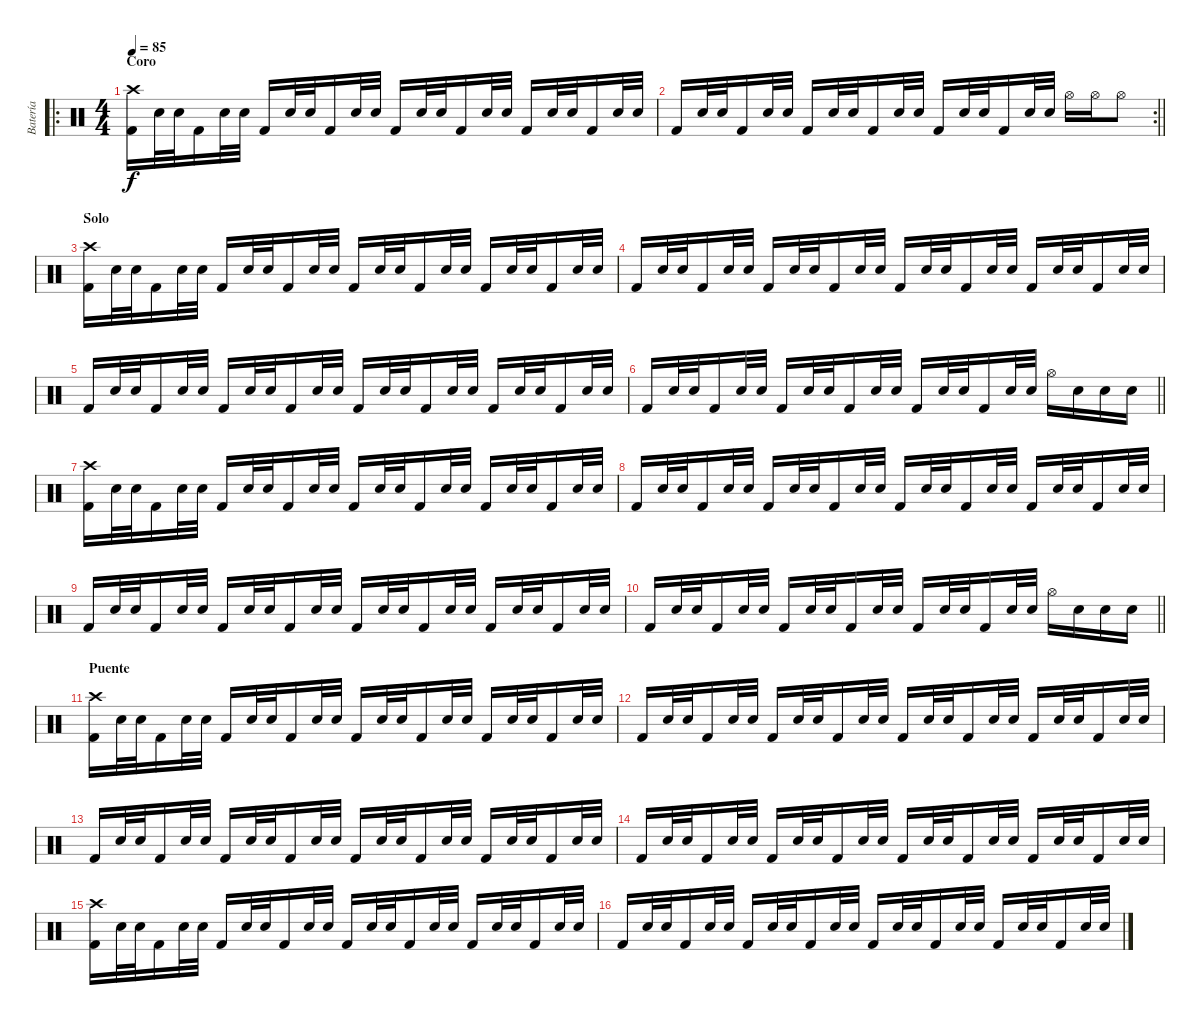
\track ("Batería" "Batería") {instrument percussion}
\staff {score}
\articulation defaults
\ro
\ts (4 4)
\section ("" "Coro")
\tempo 85
\clef neutral
\ks c
("Crash high (hit)" "Kick (hit) 2").16{dy f} "Snare (hit) 2".32 "Electric Snare (hit)".32 "Kick (hit) 2".16 "Snare (hit) 2".32 "Electric Snare (hit)".32 "Kick (hit) 2".16 "Snare (hit) 2".32 "Electric Snare (hit)".32 "Kick (hit) 2".16 "Snare (hit) 2".32 "Electric Snare (hit)".32 "Kick (hit) 2".16 "Snare (hit) 2".32 "Electric Snare (hit)".32 "Kick (hit) 2".16 "Snare (hit) 2".32 "Electric Snare (hit)".32 "Kick (hit) 2".16 "Snare (hit) 2".32 "Electric Snare (hit)".32 "Kick (hit) 2".16 "Snare (hit) 2".32 "Electric Snare (hit)".32 |
\rc 2
\barLineRight lightlight "Kick (hit) 2".16 "Snare (hit) 2".32 "Electric Snare (hit)".32 "Kick (hit) 2".16 "Snare (hit) 2".32 "Electric Snare (hit)".32 "Kick (hit) 2".16 "Snare (hit) 2".32 "Electric Snare (hit)".32 "Kick (hit) 2".16 "Snare (hit) 2".32 "Electric Snare (hit)".32 "Kick (hit) 2".16 "Snare (hit) 2".32 "Electric Snare (hit)".32 "Kick (hit) 2".16 "Snare (hit) 2".32 "Electric Snare (hit)".32 "Hi-Hat (open)".16 "Hi-Hat (open)".16 "Hi-Hat (open)".8
|
\section ("" "Solo")
("Crash high (hit)" "Kick (hit) 2").16 "Snare (hit) 2".32 "Electric Snare (hit)".32 "Kick (hit) 2".16 "Snare (hit) 2".32 "Electric Snare (hit)".32 "Kick (hit) 2".16 "Snare (hit) 2".32 "Electric Snare (hit)".32 "Kick (hit) 2".16 "Snare (hit) 2".32 "Electric Snare (hit)".32 "Kick (hit) 2".16 "Snare (hit) 2".32 "Electric Snare (hit)".32 "Kick (hit) 2".16 "Snare (hit) 2".32 "Electric Snare (hit)".32 "Kick (hit) 2".16 "Snare (hit) 2".32 "Electric Snare (hit)".32 "Kick (hit) 2".16 "Snare (hit) 2".32 "Electric Snare (hit)".32 |
"Kick (hit) 2".16 "Snare (hit) 2".32 "Electric Snare (hit)".32 "Kick (hit) 2".16 "Snare (hit) 2".32 "Electric Snare (hit)".32 "Kick (hit) 2".16 "Snare (hit) 2".32 "Electric Snare (hit)".32 "Kick (hit) 2".16 "Snare (hit) 2".32 "Electric Snare (hit)".32 "Kick (hit) 2".16 "Snare (hit) 2".32 "Electric Snare (hit)".32 "Kick (hit) 2".16 "Snare (hit) 2".32 "Electric Snare (hit)".32 "Kick (hit) 2".16 "Snare (hit) 2".32 "Electric Snare (hit)".32 "Kick (hit) 2".16 "Snare (hit) 2".32 "Electric Snare (hit)".32 |
"Kick (hit) 2".16 "Snare (hit) 2".32 "Electric Snare (hit)".32 "Kick (hit) 2".16 "Snare (hit) 2".32 "Electric Snare (hit)".32 "Kick (hit) 2".16 "Snare (hit) 2".32 "Electric Snare (hit)".32 "Kick (hit) 2".16 "Snare (hit) 2".32 "Electric Snare (hit)".32 "Kick (hit) 2".16 "Snare (hit) 2".32 "Electric Snare (hit)".32 "Kick (hit) 2".16 "Snare (hit) 2".32 "Electric Snare (hit)".32 "Kick (hit) 2".16 "Snare (hit) 2".32 "Electric Snare (hit)".32 "Kick (hit) 2".16 "Snare (hit) 2".32 "Electric Snare (hit)".32 |
\barLineRight lightlight "Kick (hit) 2".16 "Snare (hit) 2".32 "Electric Snare (hit)".32 "Kick (hit) 2".16 "Snare (hit) 2".32 "Electric Snare (hit)".32 "Kick (hit) 2".16 "Snare (hit) 2".32 "Electric Snare (hit)".32 "Kick (hit) 2".16 "Snare (hit) 2".32 "Electric Snare (hit)".32 "Kick (hit) 2".16 "Snare (hit) 2".32 "Electric Snare (hit)".32 "Kick (hit) 2".16 "Snare (hit) 2".32 "Electric Snare (hit)".32 "Hi-Hat (open)".16 "Snare (hit) 2".16 "Snare (hit) 2".16 "Snare (hit) 2".16
|
("Crash high (hit)" "Kick (hit) 2").16 "Snare (hit) 2".32 "Electric Snare (hit)".32 "Kick (hit) 2".16 "Snare (hit) 2".32 "Electric Snare (hit)".32 "Kick (hit) 2".16 "Snare (hit) 2".32 "Electric Snare (hit)".32 "Kick (hit) 2".16 "Snare (hit) 2".32 "Electric Snare (hit)".32 "Kick (hit) 2".16 "Snare (hit) 2".32 "Electric Snare (hit)".32 "Kick (hit) 2".16 "Snare (hit) 2".32 "Electric Snare (hit)".32 "Kick (hit) 2".16 "Snare (hit) 2".32 "Electric Snare (hit)".32 "Kick (hit) 2".16 "Snare (hit) 2".32 "Electric Snare (hit)".32 |
"Kick (hit) 2".16 "Snare (hit) 2".32 "Electric Snare (hit)".32 "Kick (hit) 2".16 "Snare (hit) 2".32 "Electric Snare (hit)".32 "Kick (hit) 2".16 "Snare (hit) 2".32 "Electric Snare (hit)".32 "Kick (hit) 2".16 "Snare (hit) 2".32 "Electric Snare (hit)".32 "Kick (hit) 2".16 "Snare (hit) 2".32 "Electric Snare (hit)".32 "Kick (hit) 2".16 "Snare (hit) 2".32 "Electric Snare (hit)".32 "Kick (hit) 2".16 "Snare (hit) 2".32 "Electric Snare (hit)".32 "Kick (hit) 2".16 "Snare (hit) 2".32 "Electric Snare (hit)".32 |
"Kick (hit) 2".16 "Snare (hit) 2".32 "Electric Snare (hit)".32 "Kick (hit) 2".16 "Snare (hit) 2".32 "Electric Snare (hit)".32 "Kick (hit) 2".16 "Snare (hit) 2".32 "Electric Snare (hit)".32 "Kick (hit) 2".16 "Snare (hit) 2".32 "Electric Snare (hit)".32 "Kick (hit) 2".16 "Snare (hit) 2".32 "Electric Snare (hit)".32 "Kick (hit) 2".16 "Snare (hit) 2".32 "Electric Snare (hit)".32 "Kick (hit) 2".16 "Snare (hit) 2".32 "Electric Snare (hit)".32 "Kick (hit) 2".16 "Snare (hit) 2".32 "Electric Snare (hit)".32 |
\barLineRight lightlight "Kick (hit) 2".16 "Snare (hit) 2".32 "Electric Snare (hit)".32 "Kick (hit) 2".16 "Snare (hit) 2".32 "Electric Snare (hit)".32 "Kick (hit) 2".16 "Snare (hit) 2".32 "Electric Snare (hit)".32 "Kick (hit) 2".16 "Snare (hit) 2".32 "Electric Snare (hit)".32 "Kick (hit) 2".16 "Snare (hit) 2".32 "Electric Snare (hit)".32 "Kick (hit) 2".16 "Snare (hit) 2".32 "Electric Snare (hit)".32 "Hi-Hat (open)".16 "Snare (hit) 2".16 "Snare (hit) 2".16 "Snare (hit) 2".16
|
\section ("" "Puente")
("Crash high (hit)" "Kick (hit) 2").16 "Snare (hit) 2".32 "Electric Snare (hit)".32 "Kick (hit) 2".16 "Snare (hit) 2".32 "Electric Snare (hit)".32 "Kick (hit) 2".16 "Snare (hit) 2".32 "Electric Snare (hit)".32 "Kick (hit) 2".16 "Snare (hit) 2".32 "Electric Snare (hit)".32 "Kick (hit) 2".16 "Snare (hit) 2".32 "Electric Snare (hit)".32 "Kick (hit) 2".16 "Snare (hit) 2".32 "Electric Snare (hit)".32 "Kick (hit) 2".16 "Snare (hit) 2".32 "Electric Snare (hit)".32 "Kick (hit) 2".16 "Snare (hit) 2".32 "Electric Snare (hit)".32 |
"Kick (hit) 2".16 "Snare (hit) 2".32 "Electric Snare (hit)".32 "Kick (hit) 2".16 "Snare (hit) 2".32 "Electric Snare (hit)".32 "Kick (hit) 2".16 "Snare (hit) 2".32 "Electric Snare (hit)".32 "Kick (hit) 2".16 "Snare (hit) 2".32 "Electric Snare (hit)".32 "Kick (hit) 2".16 "Snare (hit) 2".32 "Electric Snare (hit)".32 "Kick (hit) 2".16 "Snare (hit) 2".32 "Electric Snare (hit)".32 "Kick (hit) 2".16 "Snare (hit) 2".32 "Electric Snare (hit)".32 "Kick (hit) 2".16 "Snare (hit) 2".32 "Electric Snare (hit)".32 |
"Kick (hit) 2".16 "Snare (hit) 2".32 "Electric Snare (hit)".32 "Kick (hit) 2".16 "Snare (hit) 2".32 "Electric Snare (hit)".32 "Kick (hit) 2".16 "Snare (hit) 2".32 "Electric Snare (hit)".32 "Kick (hit) 2".16 "Snare (hit) 2".32 "Electric Snare (hit)".32 "Kick (hit) 2".16 "Snare (hit) 2".32 "Electric Snare (hit)".32 "Kick (hit) 2".16 "Snare (hit) 2".32 "Electric Snare (hit)".32 "Kick (hit) 2".16 "Snare (hit) 2".32 "Electric Snare (hit)".32 "Kick (hit) 2".16 "Snare (hit) 2".32 "Electric Snare (hit)".32 |
"Kick (hit) 2".16 "Snare (hit) 2".32 "Electric Snare (hit)".32 "Kick (hit) 2".16 "Snare (hit) 2".32 "Electric Snare (hit)".32 "Kick (hit) 2".16 "Snare (hit) 2".32 "Electric Snare (hit)".32 "Kick (hit) 2".16 "Snare (hit) 2".32 "Electric Snare (hit)".32 "Kick (hit) 2".16 "Snare (hit) 2".32 "Electric Snare (hit)".32 "Kick (hit) 2".16 "Snare (hit) 2".32 "Electric Snare (hit)".32 "Kick (hit) 2".16 "Snare (hit) 2".32 "Electric Snare (hit)".32 "Kick (hit) 2".16 "Snare (hit) 2".32 "Electric Snare (hit)".32 |
("Crash high (hit)" "Kick (hit) 2").16 "Snare (hit) 2".32 "Electric Snare (hit)".32 "Kick (hit) 2".16 "Snare (hit) 2".32 "Electric Snare (hit)".32 "Kick (hit) 2".16 "Snare (hit) 2".32 "Electric Snare (hit)".32 "Kick (hit) 2".16 "Snare (hit) 2".32 "Electric Snare (hit)".32 "Kick (hit) 2".16 "Snare (hit) 2".32 "Electric Snare (hit)".32 "Kick (hit) 2".16 "Snare (hit) 2".32 "Electric Snare (hit)".32 "Kick (hit) 2".16 "Snare (hit) 2".32 "Electric Snare (hit)".32 "Kick (hit) 2".16 "Snare (hit) 2".32 "Electric Snare (hit)".32 |
"Kick (hit) 2".16 "Snare (hit) 2".32 "Electric Snare (hit)".32 "Kick (hit) 2".16 "Snare (hit) 2".32 "Electric Snare (hit)".32 "Kick (hit) 2".16 "Snare (hit) 2".32 "Electric Snare (hit)".32 "Kick (hit) 2".16 "Snare (hit) 2".32 "Electric Snare (hit)".32 "Kick (hit) 2".16 "Snare (hit) 2".32 "Electric Snare (hit)".32 "Kick (hit) 2".16 "Snare (hit) 2".32 "Electric Snare (hit)".32 "Kick (hit) 2".16 "Snare (hit) 2".32 "Electric Snare (hit)".32 "Kick (hit) 2".16 "Snare (hit) 2".32 "Electric Snare (hit)".32
